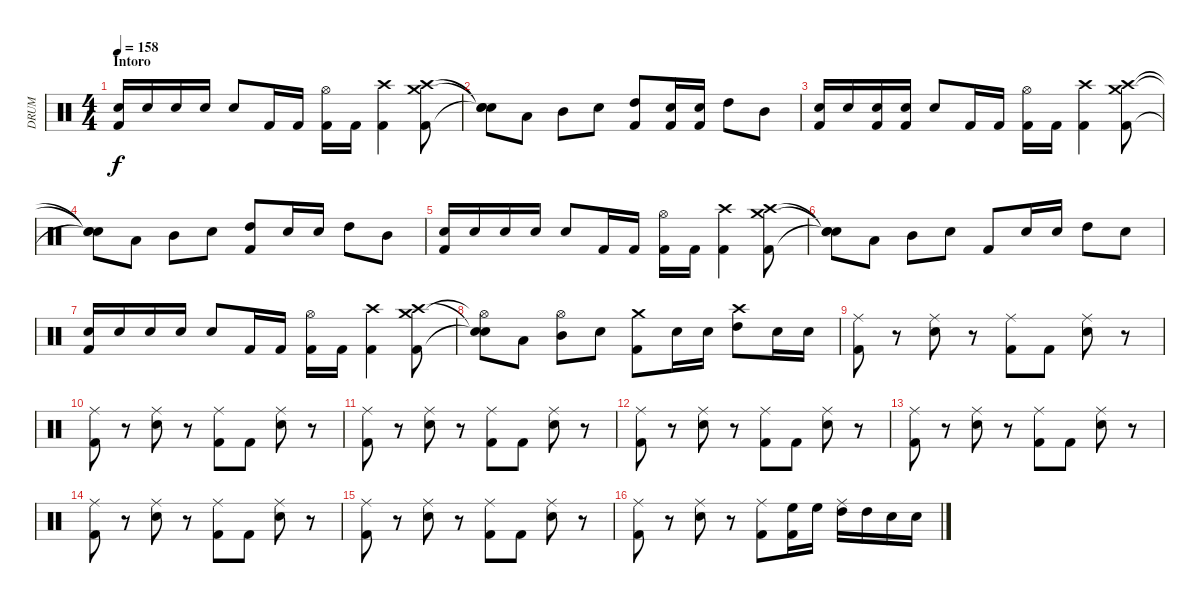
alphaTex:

\track ("DRUM" "DRUM") {instrument percussion}
\staff {score}
\articulation defaults
\ts (4 4)
\section ("" "Intoro")
\tempo 158
\clef neutral
\ks c
("Electric Snare (hit)" "Kick (hit) 2").16{dy f} "Electric Snare (hit)".16 "Electric Snare (hit)".16 "Electric Snare (hit)".16 "Snare (hit) 2".8 "Kick (hit) 2".16 "Kick (hit) 2".16 ("Hi-Hat (open)" "Kick (hit) 2").16 "Kick (hit) 2".16 ("Crash high (hit)" "Kick (hit) 2").4 ("Crash medium (hit)" "Crash high (hit)" "Kick (hit) 2").8 |
("Snare (hit)"{t} "Snare (hit)"{t} "Snare (hit)"{t}).8 "Low Tom (hit)".8 "Mid Tom (hit)".8 "Snare (hit) 2".8 ("High Tom (hit)" "Kick (hit) 2").8 ("Snare (hit) 2" "Kick (hit) 2").16 ("Snare (hit) 2" "Kick (hit) 2").16 "High Tom (hit)".8 "Mid Tom (hit)".8 |
("Electric Snare (hit)" "Kick (hit) 2").16 "Electric Snare (hit)".16 ("Electric Snare (hit)" "Kick (hit) 2").16 ("Electric Snare (hit)" "Kick (hit) 2").16 "Snare (hit) 2".8 "Kick (hit) 2".16 "Kick (hit) 2".16 ("Hi-Hat (open)" "Kick (hit) 2").16 "Kick (hit) 2".16 ("Crash high (hit)" "Kick (hit) 2").4 ("Crash medium (hit)" "Crash high (hit)" "Kick (hit) 2").8 |
("Snare (hit)"{t} "Snare (hit)"{t} "Snare (hit)"{t}).8 "Low Tom (hit)".8 "Mid Tom (hit)".8 "Snare (hit) 2".8 ("High Tom (hit)" "Kick (hit) 2").8 "Snare (hit) 2".16 "Snare (hit) 2".16 "High Tom (hit)".8 "Mid Tom (hit)".8 |
("Electric Snare (hit)" "Kick (hit) 2").16 "Electric Snare (hit)".16 "Electric Snare (hit)".16 "Electric Snare (hit)".16 "Snare (hit) 2".8 "Kick (hit) 2".16 "Kick (hit) 2".16 ("Hi-Hat (open)" "Kick (hit) 2").16 "Kick (hit) 2".16 ("Crash high (hit)" "Kick (hit) 2").4 ("Crash medium (hit)" "Crash high (hit)" "Kick (hit) 2").8 |
("Snare (hit)"{t} "Snare (hit)"{t} "Snare (hit)"{t}).8 "Low Tom (hit)".8 "Mid Tom (hit)".8 "Snare (hit) 2".8 "Kick (hit) 2".8 "Snare (hit) 2".16 "Snare (hit) 2".16 "High Tom (hit)".8 "Electric Snare (hit)".8 |
("Electric Snare (hit)" "Kick (hit) 2").16 "Electric Snare (hit)".16 "Electric Snare (hit)".16 "Electric Snare (hit)".16 "Snare (hit) 2".8 "Kick (hit) 2".16 "Kick (hit) 2".16 ("Hi-Hat (open)" "Kick (hit) 2").16 "Kick (hit) 2".16 ("Crash high (hit)" "Kick (hit) 2").4 ("Crash medium (hit)" "Crash high (hit)" "Kick (hit) 2").8 |
("Hi-Hat (open)"{t} "Snare (hit)"{t} "Snare (hit)"{t}).8 "Low Tom (hit)".8 ("Hi-Hat (open)" "Mid Tom (hit)").8 "Snare (hit) 2".8 ("Crash medium (hit)" "Kick (hit) 2").8 "Snare (hit) 2".16 "Snare (hit) 2".16 ("Crash high (hit)" "High Tom (hit)").8 "Snare (hit) 2".16 "Snare (hit) 2".16 |
("Ride (middle)" "Kick (hit) 2").8 r.8 ("Ride (middle)" "Snare (hit) 2").8 r.8 ("Ride (middle)" "Kick (hit) 2").8 "Kick (hit) 2".8 ("Ride (middle)" "Snare (hit) 2").8 r.8 |
("Ride (middle)" "Kick (hit) 2").8 r.8 ("Ride (middle)" "Snare (hit) 2").8 r.8 ("Ride (middle)" "Kick (hit) 2").8 "Kick (hit) 2".8 ("Ride (middle)" "Snare (hit) 2").8 r.8 |
("Ride (middle)" "Kick (hit) 2").8 r.8 ("Ride (middle)" "Snare (hit) 2").8 r.8 ("Ride (middle)" "Kick (hit) 2").8 "Kick (hit) 2".8 ("Ride (middle)" "Snare (hit) 2").8 r.8 |
("Ride (middle)" "Kick (hit) 2").8 r.8 ("Ride (middle)" "Snare (hit) 2").8 r.8 ("Ride (middle)" "Kick (hit) 2").8 "Kick (hit) 2".8 ("Ride (middle)" "Snare (hit) 2").8 r.8 |
("Ride (middle)" "Kick (hit) 2").8 r.8 ("Ride (middle)" "Snare (hit) 2").8 r.8 ("Ride (middle)" "Kick (hit) 2").8 "Kick (hit) 2".8 ("Ride (middle)" "Snare (hit) 2").8 r.8 |
("Ride (middle)" "Kick (hit) 2").8 r.8 ("Ride (middle)" "Snare (hit) 2").8 r.8 ("Ride (middle)" "Kick (hit) 2").8 "Kick (hit) 2".8 ("Ride (middle)" "Snare (hit) 2").8 r.8 |
("Ride (middle)" "Kick (hit) 2").8 r.8 ("Ride (middle)" "Snare (hit) 2").8 r.8 ("Ride (middle)" "Kick (hit) 2").8 "Kick (hit) 2".8 ("Ride (middle)" "Snare (hit) 2").8 r.8 |
("Ride (middle)" "Kick (hit) 2").8 r.8 ("Ride (middle)" "Snare (hit) 2").8 r.8 ("Ride (middle)" "Kick (hit) 2").8 ("High Floor Tom (hit)" "Kick (hit) 2").16 "High Floor Tom (hit)".16 ("Ride (middle)" "High Tom (hit)").16 "High Tom (hit)".16 "Snare (hit) 2".16 "Snare (hit) 2".16
